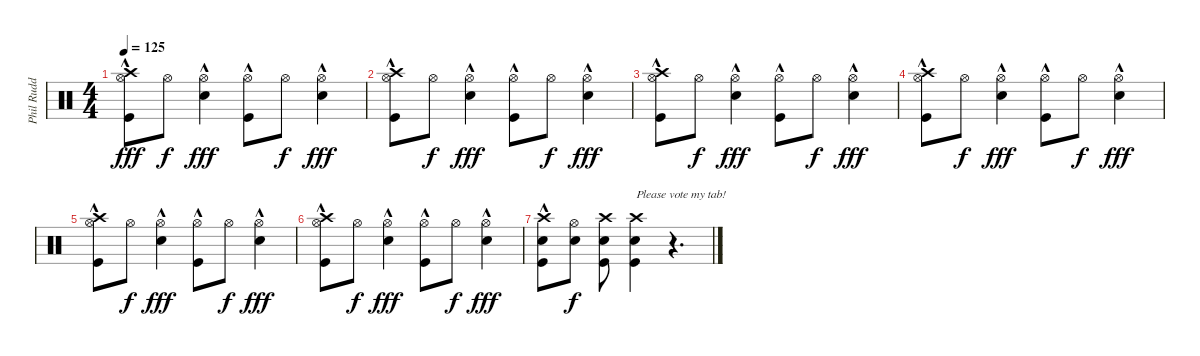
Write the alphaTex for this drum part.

\track ("Phil Rudd" "Phil Rudd") {instrument percussion}
\staff {score}
\articulation defaults
\ts (4 4)
\tempo 125
\clef neutral
\ks c
("Hi-Hat (open)" "Crash high (hit)" "Kick (hit)"{hac}).8{dy fff} "Hi-Hat (open)".8{dy f} ("Snare (hit) 2"{hac} "Hi-Hat (open)").4{dy fff} ("Hi-Hat (open)" "Kick (hit)"{hac}).8 "Hi-Hat (open)".8{dy f} ("Snare (hit) 2"{hac} "Hi-Hat (open)").4{dy fff} |
("Hi-Hat (open)" "Crash high (hit)" "Kick (hit)"{hac}).8 "Hi-Hat (open)".8{dy f} ("Snare (hit) 2"{hac} "Hi-Hat (open)").4{dy fff} ("Hi-Hat (open)" "Kick (hit)"{hac}).8 "Hi-Hat (open)".8{dy f} ("Snare (hit) 2"{hac} "Hi-Hat (open)").4{dy fff} |
("Hi-Hat (open)" "Crash high (hit)" "Kick (hit)"{hac}).8 "Hi-Hat (open)".8{dy f} ("Snare (hit) 2"{hac} "Hi-Hat (open)").4{dy fff} ("Hi-Hat (open)" "Kick (hit)"{hac}).8 "Hi-Hat (open)".8{dy f} ("Snare (hit) 2"{hac} "Hi-Hat (open)").4{dy fff} |
("Hi-Hat (open)" "Crash high (hit)" "Kick (hit)"{hac}).8 "Hi-Hat (open)".8{dy f} ("Snare (hit) 2"{hac} "Hi-Hat (open)").4{dy fff} ("Hi-Hat (open)" "Kick (hit)"{hac}).8 "Hi-Hat (open)".8{dy f} ("Snare (hit) 2"{hac} "Hi-Hat (open)").4{dy fff} |
("Hi-Hat (open)" "Crash high (hit)" "Kick (hit)"{hac}).8 "Hi-Hat (open)".8{dy f} ("Snare (hit) 2"{hac} "Hi-Hat (open)").4{dy fff} ("Hi-Hat (open)" "Kick (hit)"{hac}).8 "Hi-Hat (open)".8{dy f} ("Snare (hit) 2"{hac} "Hi-Hat (open)").4{dy fff} |
("Hi-Hat (open)" "Crash high (hit)" "Kick (hit)"{hac}).8 "Hi-Hat (open)".8{dy f} ("Snare (hit) 2"{hac} "Hi-Hat (open)").4{dy fff} ("Hi-Hat (open)" "Kick (hit)"{hac}).8 "Hi-Hat (open)".8{dy f} ("Snare (hit) 2"{hac} "Hi-Hat (open)").4{dy fff} |
("Snare (hit) 2" "Crash high (hit)" "Kick (hit)"{hac}).8 ("Snare (hit) 2" "Hi-Hat (open)").8{dy f} ("Snare (hit) 2" "Crash high (hit)" "Kick (hit)").8 ("Snare (hit) 2" "Crash high (hit)" "Kick (hit)").4{txt "Please vote my tab!"} r.4{d}
